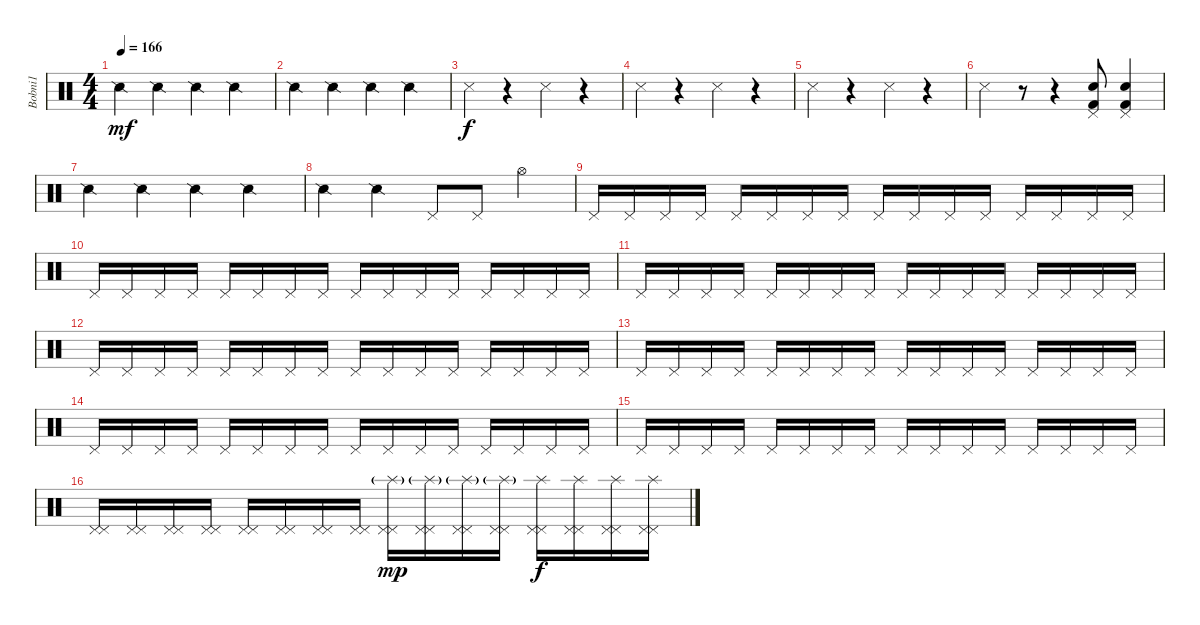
\track ("Bobni1" "Bobni1") {instrument percussion}
\staff {score}
\articulation defaults
\ts (4 4)
\tempo 166
\clef neutral
\ks c "Snare (side stick) 2".4{dy mf} "Snare (side stick) 2".4 "Snare (side stick) 2".4 "Snare (side stick) 2".4
|
"Snare (side stick) 2".4 "Snare (side stick) 2".4 "Snare (side stick) 2".4 "Snare (side stick) 2".4 |
"Snare (side stick) 3".4{dy f} r.4 "Snare (side stick) 3".4 r.4 |
"Snare (side stick) 3".4 r.4 "Snare (side stick) 3".4 r.4 |
"Snare (side stick) 3".4 r.4 "Snare (side stick) 3".4 r.4 |
"Snare (side stick) 3".4 r.8 r.4 ("Pedal Hi-Hat (hit)" "Snare (hit) 2" "Kick (hit) 2").8 ("Pedal Hi-Hat (hit)" "Snare (hit) 2" "Kick (hit) 2").4 |
"Snare (side stick) 2".4 "Snare (side stick) 2".4 "Snare (side stick) 2".4 "Snare (side stick) 2".4 |
"Snare (side stick) 2".4 "Snare (side stick) 2".4 "Pedal Hi-Hat (hit)".8 "Pedal Hi-Hat (hit)".8 "Hi-Hat (open)".4 |
"Pedal Hi-Hat (hit)".16 "Pedal Hi-Hat (hit)".16 "Pedal Hi-Hat (hit)".16 "Pedal Hi-Hat (hit)".16 "Pedal Hi-Hat (hit)".16 "Pedal Hi-Hat (hit)".16 "Pedal Hi-Hat (hit)".16 "Pedal Hi-Hat (hit)".16 "Pedal Hi-Hat (hit)".16 "Pedal Hi-Hat (hit)".16 "Pedal Hi-Hat (hit)".16 "Pedal Hi-Hat (hit)".16 "Pedal Hi-Hat (hit)".16 "Pedal Hi-Hat (hit)".16 "Pedal Hi-Hat (hit)".16 "Pedal Hi-Hat (hit)".16 |
"Pedal Hi-Hat (hit)".16 "Pedal Hi-Hat (hit)".16 "Pedal Hi-Hat (hit)".16 "Pedal Hi-Hat (hit)".16 "Pedal Hi-Hat (hit)".16 "Pedal Hi-Hat (hit)".16 "Pedal Hi-Hat (hit)".16 "Pedal Hi-Hat (hit)".16 "Pedal Hi-Hat (hit)".16 "Pedal Hi-Hat (hit)".16 "Pedal Hi-Hat (hit)".16 "Pedal Hi-Hat (hit)".16 "Pedal Hi-Hat (hit)".16 "Pedal Hi-Hat (hit)".16 "Pedal Hi-Hat (hit)".16 "Pedal Hi-Hat (hit)".16 |
"Pedal Hi-Hat (hit)".16 "Pedal Hi-Hat (hit)".16 "Pedal Hi-Hat (hit)".16 "Pedal Hi-Hat (hit)".16 "Pedal Hi-Hat (hit)".16 "Pedal Hi-Hat (hit)".16 "Pedal Hi-Hat (hit)".16 "Pedal Hi-Hat (hit)".16 "Pedal Hi-Hat (hit)".16 "Pedal Hi-Hat (hit)".16 "Pedal Hi-Hat (hit)".16 "Pedal Hi-Hat (hit)".16 "Pedal Hi-Hat (hit)".16 "Pedal Hi-Hat (hit)".16 "Pedal Hi-Hat (hit)".16 "Pedal Hi-Hat (hit)".16 |
"Pedal Hi-Hat (hit)".16 "Pedal Hi-Hat (hit)".16 "Pedal Hi-Hat (hit)".16 "Pedal Hi-Hat (hit)".16 "Pedal Hi-Hat (hit)".16 "Pedal Hi-Hat (hit)".16 "Pedal Hi-Hat (hit)".16 "Pedal Hi-Hat (hit)".16 "Pedal Hi-Hat (hit)".16 "Pedal Hi-Hat (hit)".16 "Pedal Hi-Hat (hit)".16 "Pedal Hi-Hat (hit)".16 "Pedal Hi-Hat (hit)".16 "Pedal Hi-Hat (hit)".16 "Pedal Hi-Hat (hit)".16 "Pedal Hi-Hat (hit)".16 |
"Pedal Hi-Hat (hit)".16 "Pedal Hi-Hat (hit)".16 "Pedal Hi-Hat (hit)".16 "Pedal Hi-Hat (hit)".16 "Pedal Hi-Hat (hit)".16 "Pedal Hi-Hat (hit)".16 "Pedal Hi-Hat (hit)".16 "Pedal Hi-Hat (hit)".16 "Pedal Hi-Hat (hit)".16 "Pedal Hi-Hat (hit)".16 "Pedal Hi-Hat (hit)".16 "Pedal Hi-Hat (hit)".16 "Pedal Hi-Hat (hit)".16 "Pedal Hi-Hat (hit)".16 "Pedal Hi-Hat (hit)".16 "Pedal Hi-Hat (hit)".16 |
"Pedal Hi-Hat (hit)".16 "Pedal Hi-Hat (hit)".16 "Pedal Hi-Hat (hit)".16 "Pedal Hi-Hat (hit)".16 "Pedal Hi-Hat (hit)".16 "Pedal Hi-Hat (hit)".16 "Pedal Hi-Hat (hit)".16 "Pedal Hi-Hat (hit)".16 "Pedal Hi-Hat (hit)".16 "Pedal Hi-Hat (hit)".16 "Pedal Hi-Hat (hit)".16 "Pedal Hi-Hat (hit)".16 "Pedal Hi-Hat (hit)".16 "Pedal Hi-Hat (hit)".16 "Pedal Hi-Hat (hit)".16 "Pedal Hi-Hat (hit)".16 |
"Pedal Hi-Hat (hit)".16 "Pedal Hi-Hat (hit)".16 "Pedal Hi-Hat (hit)".16 "Pedal Hi-Hat (hit)".16 "Pedal Hi-Hat (hit)".16 "Pedal Hi-Hat (hit)".16 "Pedal Hi-Hat (hit)".16 "Pedal Hi-Hat (hit)".16 "Pedal Hi-Hat (hit)".16 "Pedal Hi-Hat (hit)".16 "Pedal Hi-Hat (hit)".16 "Pedal Hi-Hat (hit)".16 "Pedal Hi-Hat (hit)".16 "Pedal Hi-Hat (hit)".16 "Pedal Hi-Hat (hit)".16 "Pedal Hi-Hat (hit)".16 |
("Pedal Hi-Hat (hit)" "Pedal Hi-Hat (hit)").16 ("Pedal Hi-Hat (hit)" "Pedal Hi-Hat (hit)").16 ("Pedal Hi-Hat (hit)" "Pedal Hi-Hat (hit)").16 ("Pedal Hi-Hat (hit)" "Pedal Hi-Hat (hit)").16 ("Pedal Hi-Hat (hit)" "Pedal Hi-Hat (hit)").16 ("Pedal Hi-Hat (hit)" "Pedal Hi-Hat (hit)").16 ("Pedal Hi-Hat (hit)" "Pedal Hi-Hat (hit)").16 ("Pedal Hi-Hat (hit)" "Pedal Hi-Hat (hit)").16 ("Pedal Hi-Hat (hit)" "Pedal Hi-Hat (hit)" "Splash (hit)"{g}).16{dy mp} ("Pedal Hi-Hat (hit)" "Pedal Hi-Hat (hit)" "Splash (hit)"{g}).16 ("Pedal Hi-Hat (hit)" "Pedal Hi-Hat (hit)" "Splash (hit)"{g}).16 ("Pedal Hi-Hat (hit)" "Pedal Hi-Hat (hit)" "Splash (hit)"{g}).16 ("Pedal Hi-Hat (hit)" "Pedal Hi-Hat (hit)" "Splash (hit)").16{dy f} ("Pedal Hi-Hat (hit)" "Pedal Hi-Hat (hit)" "Splash (hit)").16 ("Pedal Hi-Hat (hit)" "Pedal Hi-Hat (hit)" "Splash (hit)").16 ("Pedal Hi-Hat (hit)" "Pedal Hi-Hat (hit)" "Splash (hit)").16
